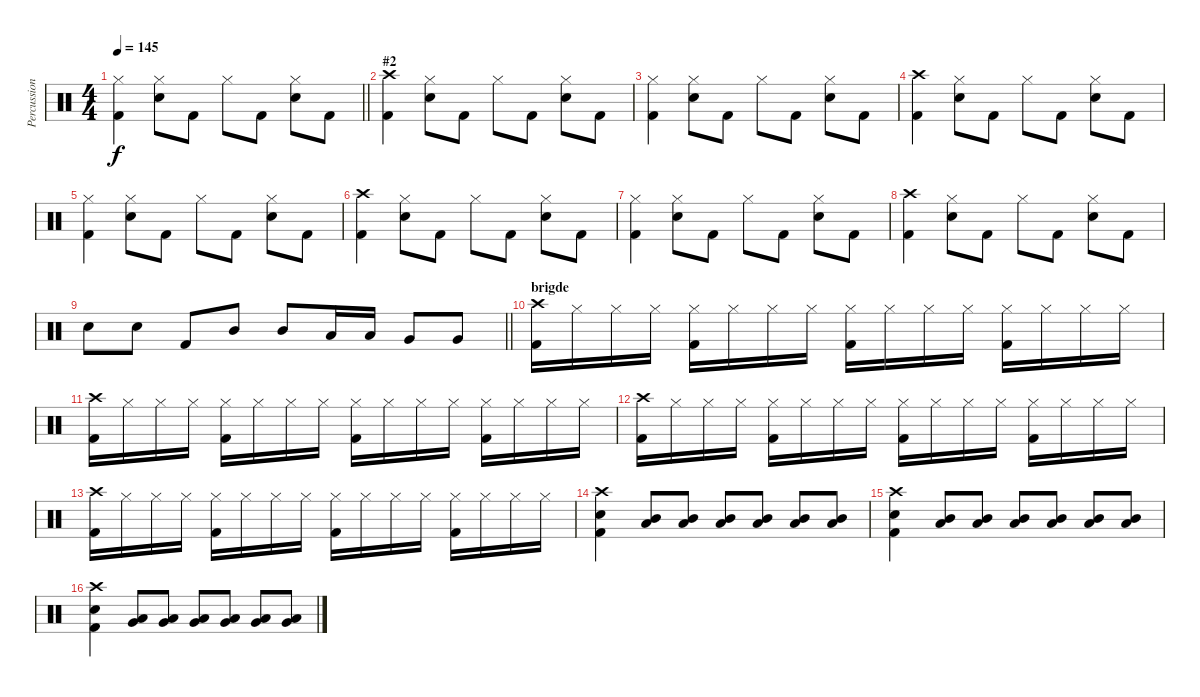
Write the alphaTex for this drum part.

\track ("Percussion" "Percussion") {instrument percussion}
\staff {score}
\articulation defaults
\ts (4 4)
\tempo 145
\clef neutral
\barLineRight lightlight
\ks c
("Hi-Hat (closed)" "Kick (hit) 2").4{dy f} ("Hi-Hat (closed)" "Electric Snare (hit)").8 "Kick (hit) 2".8 "Hi-Hat (closed)".8 "Kick (hit) 2".8 ("Hi-Hat (closed)" "Electric Snare (hit)").8 "Kick (hit) 2".8 |
\section ("" "#2")
("Crash high (hit)" "Kick (hit) 2").4 ("Hi-Hat (closed)" "Electric Snare (hit)").8 "Kick (hit) 2".8 "Hi-Hat (closed)".8 "Kick (hit) 2".8 ("Hi-Hat (closed)" "Electric Snare (hit)").8 "Kick (hit) 2".8 |
("Hi-Hat (closed)" "Kick (hit) 2").4 ("Hi-Hat (closed)" "Electric Snare (hit)").8 "Kick (hit) 2".8 "Hi-Hat (closed)".8 "Kick (hit) 2".8 ("Hi-Hat (closed)" "Electric Snare (hit)").8 "Kick (hit) 2".8 |
("Crash high (hit)" "Kick (hit) 2").4 ("Hi-Hat (closed)" "Electric Snare (hit)").8 "Kick (hit) 2".8 "Hi-Hat (closed)".8 "Kick (hit) 2".8 ("Hi-Hat (closed)" "Electric Snare (hit)").8 "Kick (hit) 2".8 |
("Hi-Hat (closed)" "Kick (hit) 2").4 ("Hi-Hat (closed)" "Electric Snare (hit)").8 "Kick (hit) 2".8 "Hi-Hat (closed)".8 "Kick (hit) 2".8 ("Hi-Hat (closed)" "Electric Snare (hit)").8 "Kick (hit) 2".8 |
("Crash high (hit)" "Kick (hit) 2").4 ("Hi-Hat (closed)" "Electric Snare (hit)").8 "Kick (hit) 2".8 "Hi-Hat (closed)".8 "Kick (hit) 2".8 ("Hi-Hat (closed)" "Electric Snare (hit)").8 "Kick (hit) 2".8 |
("Hi-Hat (closed)" "Kick (hit) 2").4 ("Hi-Hat (closed)" "Electric Snare (hit)").8 "Kick (hit) 2".8 "Hi-Hat (closed)".8 "Kick (hit) 2".8 ("Hi-Hat (closed)" "Electric Snare (hit)").8 "Kick (hit) 2".8 |
("Crash high (hit)" "Kick (hit) 2").4 ("Hi-Hat (closed)" "Electric Snare (hit)").8 "Kick (hit) 2".8 "Hi-Hat (closed)".8 "Kick (hit) 2".8 ("Hi-Hat (closed)" "Electric Snare (hit)").8 "Kick (hit) 2".8 |
\barLineRight lightlight "Electric Snare (hit)".8 "Electric Snare (hit)".8 "Kick (hit) 2".8 "Mid Tom (hit)".8 "Mid Tom (hit)".8 "Low Tom (hit)".16 "Low Tom (hit)".16 "Very Low Tom (hit)".8 "Very Low Tom (hit)".8
|
\section ("" "brigde")
("Crash high (hit)" "Kick (hit) 2").16 "Hi-Hat (closed)".16 "Hi-Hat (closed)".16 "Hi-Hat (closed)".16 ("Hi-Hat (closed)" "Kick (hit) 2").16 "Hi-Hat (closed)".16 "Hi-Hat (closed)".16 "Hi-Hat (closed)".16 ("Hi-Hat (closed)" "Kick (hit) 2").16 "Hi-Hat (closed)".16 "Hi-Hat (closed)".16 "Hi-Hat (closed)".16 ("Hi-Hat (closed)" "Kick (hit) 2").16 "Hi-Hat (closed)".16 "Hi-Hat (closed)".16 "Hi-Hat (closed)".16 |
("Crash high (hit)" "Kick (hit) 2").16 "Hi-Hat (closed)".16 "Hi-Hat (closed)".16 "Hi-Hat (closed)".16 ("Hi-Hat (closed)" "Kick (hit) 2").16 "Hi-Hat (closed)".16 "Hi-Hat (closed)".16 "Hi-Hat (closed)".16 ("Hi-Hat (closed)" "Kick (hit) 2").16 "Hi-Hat (closed)".16 "Hi-Hat (closed)".16 "Hi-Hat (closed)".16 ("Hi-Hat (closed)" "Kick (hit) 2").16 "Hi-Hat (closed)".16 "Hi-Hat (closed)".16 "Hi-Hat (closed)".16 |
("Crash high (hit)" "Kick (hit) 2").16 "Hi-Hat (closed)".16 "Hi-Hat (closed)".16 "Hi-Hat (closed)".16 ("Hi-Hat (closed)" "Kick (hit) 2").16 "Hi-Hat (closed)".16 "Hi-Hat (closed)".16 "Hi-Hat (closed)".16 ("Hi-Hat (closed)" "Kick (hit) 2").16 "Hi-Hat (closed)".16 "Hi-Hat (closed)".16 "Hi-Hat (closed)".16 ("Hi-Hat (closed)" "Kick (hit) 2").16 "Hi-Hat (closed)".16 "Hi-Hat (closed)".16 "Hi-Hat (closed)".16 |
("Crash high (hit)" "Kick (hit) 2").16 "Hi-Hat (closed)".16 "Hi-Hat (closed)".16 "Hi-Hat (closed)".16 ("Hi-Hat (closed)" "Kick (hit) 2").16 "Hi-Hat (closed)".16 "Hi-Hat (closed)".16 "Hi-Hat (closed)".16 ("Hi-Hat (closed)" "Kick (hit) 2").16 "Hi-Hat (closed)".16 "Hi-Hat (closed)".16 "Hi-Hat (closed)".16 ("Hi-Hat (closed)" "Kick (hit) 2").16 "Hi-Hat (closed)".16 "Hi-Hat (closed)".16 "Hi-Hat (closed)".16 |
("Crash high (hit)" "Electric Snare (hit)" "Kick (hit) 2").4 ("Low Tom (hit)" "Mid Tom (hit)").8 ("Low Tom (hit)" "Mid Tom (hit)").8 ("Low Tom (hit)" "Mid Tom (hit)").8 ("Low Tom (hit)" "Mid Tom (hit)").8 ("Low Tom (hit)" "Mid Tom (hit)").8 ("Low Tom (hit)" "Mid Tom (hit)").8 |
("Crash high (hit)" "Electric Snare (hit)" "Kick (hit) 2").4 ("Low Tom (hit)" "Mid Tom (hit)").8 ("Low Tom (hit)" "Mid Tom (hit)").8 ("Low Tom (hit)" "Mid Tom (hit)").8 ("Low Tom (hit)" "Mid Tom (hit)").8 ("Low Tom (hit)" "Mid Tom (hit)").8 ("Low Tom (hit)" "Mid Tom (hit)").8 |
("Crash high (hit)" "Electric Snare (hit)" "Kick (hit) 2").4 ("Low Tom (hit)" "Very Low Tom (hit)").8 ("Low Tom (hit)" "Very Low Tom (hit)").8 ("Low Tom (hit)" "Very Low Tom (hit)").8 ("Low Tom (hit)" "Very Low Tom (hit)").8 ("Low Tom (hit)" "Very Low Tom (hit)").8 ("Low Tom (hit)" "Very Low Tom (hit)").8
